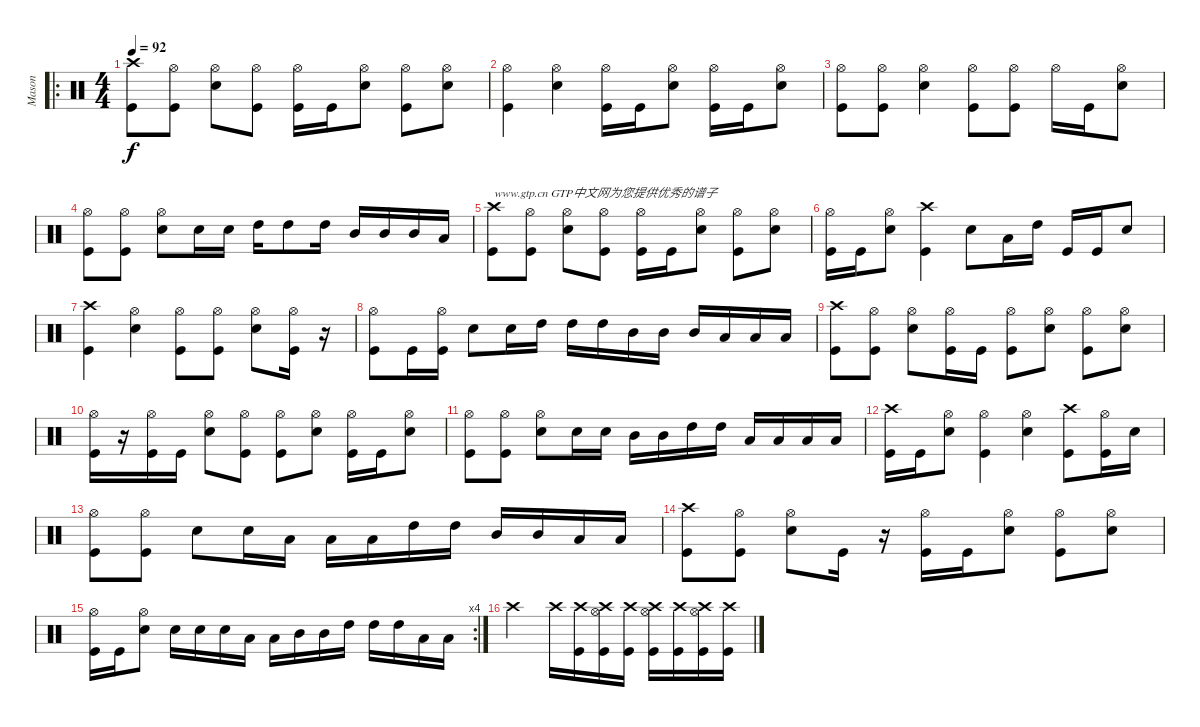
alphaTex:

\track ("Mason" "Mason") {instrument percussion}
\staff {score}
\articulation defaults
\ro
\ts (4 4)
\tempo 92
\clef neutral
\ks c
("Kick (hit)" "Crash high (hit)").8{dy f} ("Kick (hit)" "Hi-Hat (open)").8 ("Snare (hit) 2" "Hi-Hat (open)").8 ("Kick (hit)" "Hi-Hat (open)").8 ("Kick (hit)" "Hi-Hat (open)").16 "Kick (hit)".16 ("Snare (hit) 2" "Hi-Hat (open)").8 ("Kick (hit)" "Hi-Hat (open)").8 ("Snare (hit) 2" "Hi-Hat (open)").8 |
("Kick (hit)" "Hi-Hat (open)").4 ("Snare (hit) 2" "Hi-Hat (open)").4 ("Kick (hit)" "Hi-Hat (open)").16 "Kick (hit)".16 ("Snare (hit) 2" "Hi-Hat (open)").8 ("Kick (hit)" "Hi-Hat (open)").16 "Kick (hit)".16 ("Snare (hit) 2" "Hi-Hat (open)").8 |
("Kick (hit)" "Hi-Hat (open)").8 ("Kick (hit)" "Hi-Hat (open)").8 ("Snare (hit) 2" "Hi-Hat (open)").4 ("Kick (hit)" "Hi-Hat (open)").8 ("Kick (hit)" "Hi-Hat (open)").8 "Hi-Hat (open)".16 "Kick (hit)".16 ("Snare (hit) 2" "Hi-Hat (open)").8 |
("Kick (hit)" "Hi-Hat (open)").8 ("Kick (hit)" "Hi-Hat (open)").8 ("Snare (hit) 2" "Hi-Hat (open)").8 "Snare (hit) 2".16 "Snare (hit) 2".16 "High Tom (hit)".16 "High Tom (hit)".8 "High Tom (hit)".16 "Mid Tom (hit)".16 "Mid Tom (hit)".16 "Mid Tom (hit)".16 "Low Tom (hit)".16 |
("Kick (hit)" "Crash high (hit)").8{txt "www.gtp.cn GTP中文网为您提供优秀的谱子"} ("Kick (hit)" "Hi-Hat (open)").8 ("Snare (hit) 2" "Hi-Hat (open)").8 ("Kick (hit)" "Hi-Hat (open)").8 ("Kick (hit)" "Hi-Hat (open)").16 "Kick (hit)".16 ("Snare (hit) 2" "Hi-Hat (open)").8 ("Kick (hit)" "Hi-Hat (open)").8 ("Snare (hit) 2" "Hi-Hat (open)").8 |
("Kick (hit)" "Hi-Hat (open)").16 "Kick (hit)".16 ("Snare (hit) 2" "Hi-Hat (open)").8 ("Kick (hit)" "Crash high (hit)").4 "Snare (hit) 2".8 "Low Tom (hit)".16 "High Tom (hit)".16 "Kick (hit)".16 "Kick (hit)".16 "Snare (hit) 2".8 |
("Kick (hit)" "Crash high (hit)").4 ("Snare (hit) 2" "Hi-Hat (open)").4 ("Kick (hit)" "Hi-Hat (open)").8 ("Kick (hit)" "Hi-Hat (open)").8 ("Snare (hit) 2" "Hi-Hat (open)").8 ("Kick (hit)" "Hi-Hat (open)").16 r.16 |
("Kick (hit)" "Hi-Hat (open)").8 "Kick (hit)".16 ("Kick (hit)" "Hi-Hat (open)").16 "Snare (hit) 2".8 "Snare (hit) 2".16 "High Tom (hit)".16 "High Tom (hit)".16 "High Tom (hit)".16 "Mid Tom (hit)".16 "Mid Tom (hit)".16 "Mid Tom (hit)".16 "Low Tom (hit)".16 "Low Tom (hit)".16 "Low Tom (hit)".16 |
("Kick (hit)" "Crash high (hit)").8 ("Kick (hit)" "Hi-Hat (open)").8 ("Snare (hit) 2" "Hi-Hat (open)").8 ("Kick (hit)" "Hi-Hat (open)").16 "Kick (hit)".16 ("Kick (hit)" "Hi-Hat (open)").8 ("Snare (hit) 2" "Hi-Hat (open)").8 ("Kick (hit)" "Hi-Hat (open)").8 ("Snare (hit) 2" "Hi-Hat (open)").8 |
("Kick (hit)" "Hi-Hat (open)").16 r.16 ("Kick (hit)" "Hi-Hat (open)").16 "Kick (hit)".16 ("Snare (hit) 2" "Hi-Hat (open)").8 ("Kick (hit)" "Hi-Hat (open)").8 ("Kick (hit)" "Hi-Hat (open)").8 ("Snare (hit) 2" "Hi-Hat (open)").8 ("Kick (hit)" "Hi-Hat (open)").16 "Kick (hit)".16 ("Snare (hit) 2" "Hi-Hat (open)").8 |
("Kick (hit)" "Hi-Hat (open)").8 ("Kick (hit)" "Hi-Hat (open)").8 ("Snare (hit) 2" "Hi-Hat (open)").8 "Snare (hit) 2".16 "Snare (hit) 2".16 "Mid Tom (hit)".16 "Mid Tom (hit)".16 "High Tom (hit)".16 "High Tom (hit)".16 "Low Tom (hit)".16 "Low Tom (hit)".16 "Low Floor Tom (hit)".16 "Low Floor Tom (hit)".16 |
("Kick (hit)" "Crash high (hit)").16 "Kick (hit)".16 ("Snare (hit) 2" "Hi-Hat (open)").8 ("Kick (hit)" "Hi-Hat (open)").4 ("Snare (hit) 2" "Hi-Hat (open)").4 ("Kick (hit)" "Crash high (hit)").8 ("Kick (hit)" "Hi-Hat (open)").16 "Snare (hit) 2".16 |
("Kick (hit)" "Hi-Hat (open)").8 ("Kick (hit)" "Hi-Hat (open)").8 "Snare (hit) 2".8 "Snare (hit) 2".16 "Low Tom (hit)".16 "Low Tom (hit)".16 "Low Tom (hit)".16 "High Tom (hit)".16 "High Tom (hit)".16 "Mid Tom (hit)".16 "Mid Tom (hit)".16 "Low Floor Tom (hit)".16 "Low Floor Tom (hit)".16 |
("Kick (hit)" "Crash high (hit)").8 ("Kick (hit)" "Hi-Hat (open)").8 ("Snare (hit) 2" "Hi-Hat (open)").8 "Kick (hit)".16 r.16 ("Kick (hit)" "Hi-Hat (open)").16 "Kick (hit)".16 ("Snare (hit) 2" "Hi-Hat (open)").8 ("Kick (hit)" "Hi-Hat (open)").8 ("Snare (hit) 2" "Hi-Hat (open)").8 |
\rc 4
("Kick (hit)" "Hi-Hat (open)").16 "Kick (hit)".16 ("Snare (hit) 2" "Hi-Hat (open)").8 "Snare (hit) 2".16 "Snare (hit) 2".16 "Snare (hit) 2".16 "Low Tom (hit)".16 "Low Tom (hit)".16 "Mid Tom (hit)".16 "Mid Tom (hit)".16 "High Tom (hit)".16 "High Tom (hit)".16 "High Tom (hit)".16 "Low Floor Tom (hit)".16 "Low Floor Tom (hit)".16 |
"Crash high (hit)".2 "Crash high (hit)".16 ("Kick (hit)" "Crash high (hit)").16 ("Kick (hit)" "Hi-Hat (open)" "Crash high (hit)").16 ("Kick (hit)" "Crash high (hit)").16 ("Kick (hit)" "Hi-Hat (open)" "Crash high (hit)").16 ("Kick (hit)" "Crash high (hit)").16 ("Kick (hit)" "Hi-Hat (open)" "Crash high (hit)").16 ("Kick (hit)" "Crash high (hit)").16
